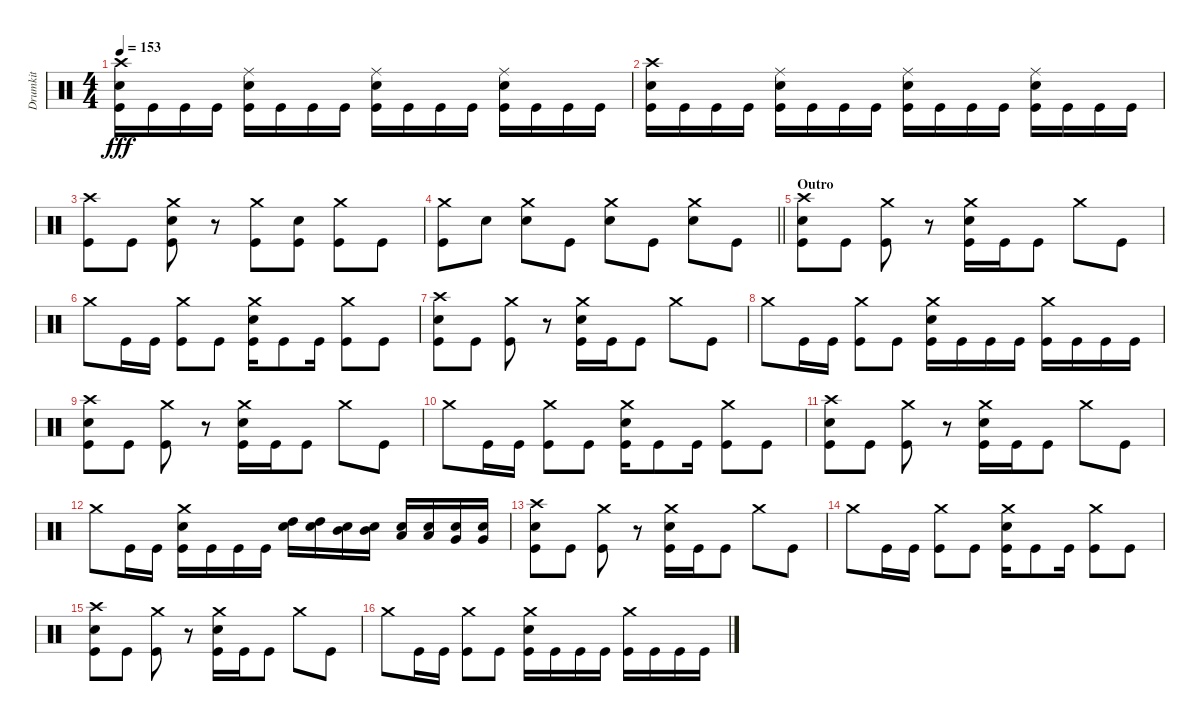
\track ("Drumkit" "Drumkit") {instrument percussion}
\staff {score}
\articulation defaults
\ts (4 4)
\tempo 153
\clef neutral
\ks c
("Crash high (hit)" "Snare (hit) 2" "Kick (hit)").16{dy fff} "Kick (hit)".16 "Kick (hit)".16 "Kick (hit)".16 ("Ride (middle)" "Snare (hit) 2" "Kick (hit)").16 "Kick (hit)".16 "Kick (hit)".16 "Kick (hit)".16 ("Ride (middle)" "Snare (hit) 2" "Kick (hit)").16 "Kick (hit)".16 "Kick (hit)".16 "Kick (hit)".16 ("Ride (middle)" "Snare (hit) 2" "Kick (hit)").16 "Kick (hit)".16 "Kick (hit)".16 "Kick (hit)".16 |
("Crash high (hit)" "Snare (hit) 2" "Kick (hit)").16 "Kick (hit)".16 "Kick (hit)".16 "Kick (hit)".16 ("Ride (middle)" "Snare (hit) 2" "Kick (hit)").16 "Kick (hit)".16 "Kick (hit)".16 "Kick (hit)".16 ("Ride (middle)" "Snare (hit) 2" "Kick (hit)").16 "Kick (hit)".16 "Kick (hit)".16 "Kick (hit)".16 ("Ride (middle)" "Snare (hit) 2" "Kick (hit)").16 "Kick (hit)".16 "Kick (hit)".16 "Kick (hit)".16 |
("Crash high (hit)" "Kick (hit)").8 "Kick (hit)".8 ("Crash medium (hit)" "Snare (hit) 2" "Kick (hit)").8 r.8 ("Crash medium (hit)" "Kick (hit)").8 ("Snare (hit) 2" "Kick (hit)").8 ("Crash medium (hit)" "Kick (hit)").8 "Kick (hit)".8 |
\barLineRight lightlight
("Crash medium (hit)" "Kick (hit)").8 "Snare (hit) 2".8 ("Crash medium (hit)" "Snare (hit) 2").8 "Kick (hit)".8 ("Crash medium (hit)" "Snare (hit) 2").8 "Kick (hit)".8 ("Crash medium (hit)" "Snare (hit) 2").8 "Kick (hit)".8 |
\section ("" "Outro")
("Crash high (hit)" "Snare (hit) 2" "Kick (hit)").8 "Kick (hit)".8 ("Crash medium (hit)" "Kick (hit)").8 r.8 ("Snare (hit) 2" "Crash medium (hit)" "Kick (hit)").16 "Kick (hit)".16 "Kick (hit)".8 "Crash medium (hit)".8 "Kick (hit)".8 |
"Crash medium (hit)".8 "Kick (hit)".16 "Kick (hit)".16 ("Crash medium (hit)" "Kick (hit)").8 "Kick (hit)".8 ("Snare (hit) 2" "Crash medium (hit)" "Kick (hit)").16 "Kick (hit)".8 "Kick (hit)".16 ("Crash medium (hit)" "Kick (hit)").8 "Kick (hit)".8 |
("Crash high (hit)" "Snare (hit) 2" "Kick (hit)").8 "Kick (hit)".8 ("Crash medium (hit)" "Kick (hit)").8 r.8 ("Snare (hit) 2" "Crash medium (hit)" "Kick (hit)").16 "Kick (hit)".16 "Kick (hit)".8 "Crash medium (hit)".8 "Kick (hit)".8 |
"Crash medium (hit)".8 "Kick (hit)".16 "Kick (hit)".16 ("Crash medium (hit)" "Kick (hit)").8 "Kick (hit)".8 ("Snare (hit) 2" "Crash medium (hit)" "Kick (hit)").16 "Kick (hit)".16 "Kick (hit)".16 "Kick (hit)".16 ("Crash medium (hit)" "Kick (hit)").16 "Kick (hit)".16 "Kick (hit)".16 "Kick (hit)".16 |
("Crash high (hit)" "Snare (hit) 2" "Kick (hit)").8 "Kick (hit)".8 ("Crash medium (hit)" "Kick (hit)").8 r.8 ("Snare (hit) 2" "Crash medium (hit)" "Kick (hit)").16 "Kick (hit)".16 "Kick (hit)".8 "Crash medium (hit)".8 "Kick (hit)".8 |
"Crash medium (hit)".8 "Kick (hit)".16 "Kick (hit)".16 ("Crash medium (hit)" "Kick (hit)").8 "Kick (hit)".8 ("Snare (hit) 2" "Crash medium (hit)" "Kick (hit)").16 "Kick (hit)".8 "Kick (hit)".16 ("Crash medium (hit)" "Kick (hit)").8 "Kick (hit)".8 |
("Crash high (hit)" "Snare (hit) 2" "Kick (hit)").8 "Kick (hit)".8 ("Crash medium (hit)" "Kick (hit)").8 r.8 ("Snare (hit) 2" "Crash medium (hit)" "Kick (hit)").16 "Kick (hit)".16 "Kick (hit)".8 "Crash medium (hit)".8 "Kick (hit)".8 |
"Crash medium (hit)".8 "Kick (hit)".16 "Kick (hit)".16 ("Snare (hit) 2" "Crash medium (hit)" "Kick (hit)").16 "Kick (hit)".16 "Kick (hit)".16 "Kick (hit)".16 ("High Tom (hit)" "Snare (hit) 2").16 ("High Tom (hit)" "Snare (hit) 2").16 ("Mid Tom (hit)" "Snare (hit) 2").16 ("Mid Tom (hit)" "Snare (hit) 2").16 ("Low Tom (hit)" "Snare (hit) 2").16 ("Low Tom (hit)" "Snare (hit) 2").16 ("Very Low Tom (hit)" "Snare (hit) 2").16 ("Very Low Tom (hit)" "Snare (hit) 2").16 |
("Crash high (hit)" "Snare (hit) 2" "Kick (hit)").8 "Kick (hit)".8 ("Crash medium (hit)" "Kick (hit)").8 r.8 ("Snare (hit) 2" "Crash medium (hit)" "Kick (hit)").16 "Kick (hit)".16 "Kick (hit)".8 "Crash medium (hit)".8 "Kick (hit)".8 |
"Crash medium (hit)".8 "Kick (hit)".16 "Kick (hit)".16 ("Crash medium (hit)" "Kick (hit)").8 "Kick (hit)".8 ("Snare (hit) 2" "Crash medium (hit)" "Kick (hit)").16 "Kick (hit)".8 "Kick (hit)".16 ("Crash medium (hit)" "Kick (hit)").8 "Kick (hit)".8 |
("Crash high (hit)" "Snare (hit) 2" "Kick (hit)").8 "Kick (hit)".8 ("Crash medium (hit)" "Kick (hit)").8 r.8 ("Snare (hit) 2" "Crash medium (hit)" "Kick (hit)").16 "Kick (hit)".16 "Kick (hit)".8 "Crash medium (hit)".8 "Kick (hit)".8 |
"Crash medium (hit)".8 "Kick (hit)".16 "Kick (hit)".16 ("Crash medium (hit)" "Kick (hit)").8 "Kick (hit)".8 ("Snare (hit) 2" "Crash medium (hit)" "Kick (hit)").16 "Kick (hit)".16 "Kick (hit)".16 "Kick (hit)".16 ("Crash medium (hit)" "Kick (hit)").16 "Kick (hit)".16 "Kick (hit)".16 "Kick (hit)".16
